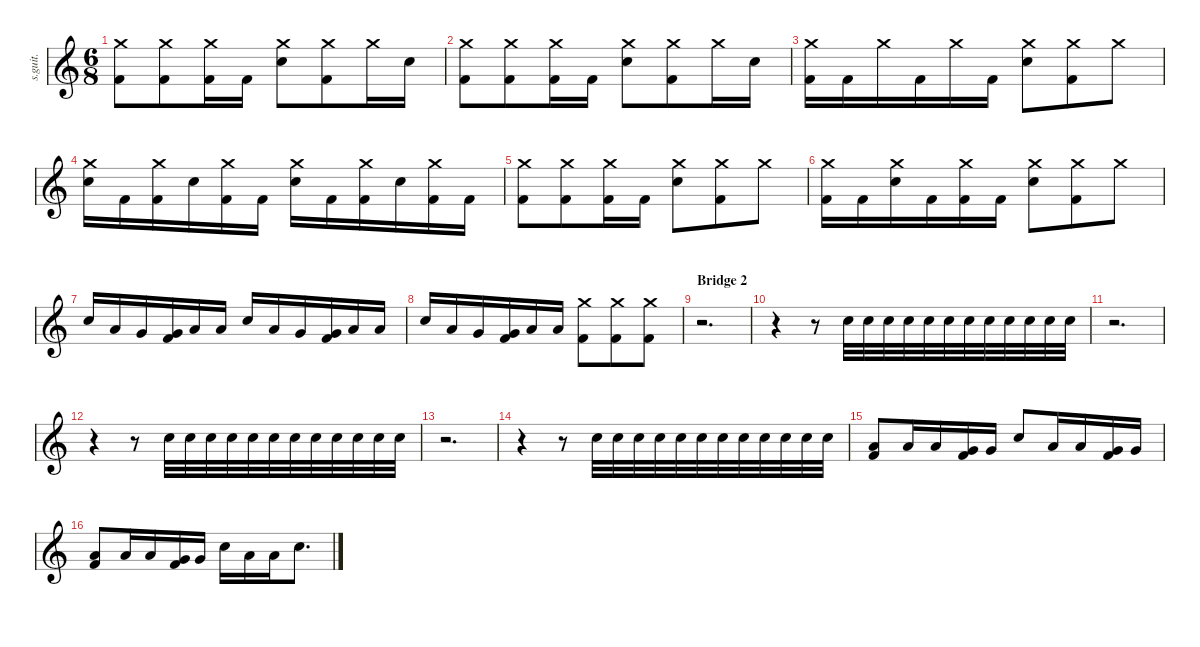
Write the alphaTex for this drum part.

\defaultSystemsLayout 4
\hideDynamics
\bracketExtendMode nobrackets
\track ("Shannon (Drums)" "s.guit.") {instrument percussion}
\staff {score}
\articulation defaults
\ts (6 8)
\tempo (94 hide)
\clef g2
\ks c
("Crash medium (hit)" "Kick (hit) 2").8{lyrics (0 "") lyrics (1 "") lyrics (2 "") lyrics (3 "") lyrics (4 "") dy f} ("Crash medium (hit)" "Kick (hit) 2").8{lyrics (0 "") lyrics (1 "") lyrics (2 "") lyrics (3 "") lyrics (4 "")} ("Crash medium (hit)" "Kick (hit) 2").16{lyrics (0 "") lyrics (1 "") lyrics (2 "") lyrics (3 "") lyrics (4 "")} "Kick (hit) 2".16{lyrics (0 "") lyrics (1 "") lyrics (2 "") lyrics (3 "") lyrics (4 "")} ("Crash medium (hit)" "Electric Snare (hit)").8{lyrics (0 "") lyrics (1 "") lyrics (2 "") lyrics (3 "") lyrics (4 "")} ("Crash medium (hit)" "Kick (hit) 2").8{lyrics (0 "") lyrics (1 "") lyrics (2 "") lyrics (3 "") lyrics (4 "")} "Crash medium (hit)".16{lyrics (0 "") lyrics (1 "") lyrics (2 "") lyrics (3 "") lyrics (4 "")} "Electric Snare (hit)".16{lyrics (0 "") lyrics (1 "") lyrics (2 "") lyrics (3 "") lyrics (4 "")} |
("Crash medium (hit)" "Kick (hit) 2").8{lyrics (0 "") lyrics (1 "") lyrics (2 "") lyrics (3 "") lyrics (4 "")} ("Crash medium (hit)" "Kick (hit) 2").8{lyrics (0 "") lyrics (1 "") lyrics (2 "") lyrics (3 "") lyrics (4 "")} ("Crash medium (hit)" "Kick (hit) 2").16{lyrics (0 "") lyrics (1 "") lyrics (2 "") lyrics (3 "") lyrics (4 "")} "Kick (hit) 2".16{lyrics (0 "") lyrics (1 "") lyrics (2 "") lyrics (3 "") lyrics (4 "")} ("Crash medium (hit)" "Electric Snare (hit)").8{lyrics (0 "") lyrics (1 "") lyrics (2 "") lyrics (3 "") lyrics (4 "")} ("Crash medium (hit)" "Kick (hit) 2").8{lyrics (0 "") lyrics (1 "") lyrics (2 "") lyrics (3 "") lyrics (4 "")} "Crash medium (hit)".16{lyrics (0 "") lyrics (1 "") lyrics (2 "") lyrics (3 "") lyrics (4 "")} "Electric Snare (hit)".16{lyrics (0 "") lyrics (1 "") lyrics (2 "") lyrics (3 "") lyrics (4 "")} |
("Crash medium (hit)" "Kick (hit) 2").16{lyrics (0 "") lyrics (1 "") lyrics (2 "") lyrics (3 "") lyrics (4 "")} "Kick (hit) 2".16{lyrics (0 "") lyrics (1 "") lyrics (2 "") lyrics (3 "") lyrics (4 "")} "Crash medium (hit)".16{lyrics (0 "") lyrics (1 "") lyrics (2 "") lyrics (3 "") lyrics (4 "")} "Kick (hit) 2".16{lyrics (0 "") lyrics (1 "") lyrics (2 "") lyrics (3 "") lyrics (4 "")} "Crash medium (hit)".16{lyrics (0 "") lyrics (1 "") lyrics (2 "") lyrics (3 "") lyrics (4 "")} "Kick (hit) 2".16{lyrics (0 "") lyrics (1 "") lyrics (2 "") lyrics (3 "") lyrics (4 "")} ("Crash medium (hit)" "Electric Snare (hit)").8{lyrics (0 "") lyrics (1 "") lyrics (2 "") lyrics (3 "") lyrics (4 "")} ("Crash medium (hit)" "Kick (hit) 2").8{lyrics (0 "") lyrics (1 "") lyrics (2 "") lyrics (3 "") lyrics (4 "")} "Crash medium (hit)".8{lyrics (0 "") lyrics (1 "") lyrics (2 "") lyrics (3 "") lyrics (4 "")} |
("Crash medium (hit)" "Electric Snare (hit)").16{lyrics (0 "") lyrics (1 "") lyrics (2 "") lyrics (3 "") lyrics (4 "")} "Kick (hit) 2".16{lyrics (0 "") lyrics (1 "") lyrics (2 "") lyrics (3 "") lyrics (4 "")} ("Crash medium (hit)" "Kick (hit) 2").16{lyrics (0 "") lyrics (1 "") lyrics (2 "") lyrics (3 "") lyrics (4 "")} "Electric Snare (hit)".16{lyrics (0 "") lyrics (1 "") lyrics (2 "") lyrics (3 "") lyrics (4 "")} ("Crash medium (hit)" "Kick (hit) 2").16{lyrics (0 "") lyrics (1 "") lyrics (2 "") lyrics (3 "") lyrics (4 "")} "Kick (hit) 2".16{lyrics (0 "") lyrics (1 "") lyrics (2 "") lyrics (3 "") lyrics (4 "")} ("Crash medium (hit)" "Electric Snare (hit)").16{lyrics (0 "") lyrics (1 "") lyrics (2 "") lyrics (3 "") lyrics (4 "")} "Kick (hit) 2".16{lyrics (0 "") lyrics (1 "") lyrics (2 "") lyrics (3 "") lyrics (4 "")} ("Crash medium (hit)" "Kick (hit) 2").16{lyrics (0 "") lyrics (1 "") lyrics (2 "") lyrics (3 "") lyrics (4 "")} "Electric Snare (hit)".16{lyrics (0 "") lyrics (1 "") lyrics (2 "") lyrics (3 "") lyrics (4 "")} ("Crash medium (hit)" "Kick (hit) 2").16{lyrics (0 "") lyrics (1 "") lyrics (2 "") lyrics (3 "") lyrics (4 "")} "Kick (hit) 2".16{lyrics (0 "") lyrics (1 "") lyrics (2 "") lyrics (3 "") lyrics (4 "")} |
("Crash medium (hit)" "Kick (hit) 2").8{lyrics (0 "") lyrics (1 "") lyrics (2 "") lyrics (3 "") lyrics (4 "")} ("Crash medium (hit)" "Kick (hit) 2").8{lyrics (0 "") lyrics (1 "") lyrics (2 "") lyrics (3 "") lyrics (4 "")} ("Crash medium (hit)" "Kick (hit) 2").16{lyrics (0 "") lyrics (1 "") lyrics (2 "") lyrics (3 "") lyrics (4 "")} "Kick (hit) 2".16{lyrics (0 "") lyrics (1 "") lyrics (2 "") lyrics (3 "") lyrics (4 "")} ("Crash medium (hit)" "Electric Snare (hit)").8{lyrics (0 "") lyrics (1 "") lyrics (2 "") lyrics (3 "") lyrics (4 "")} ("Crash medium (hit)" "Kick (hit) 2").8{lyrics (0 "") lyrics (1 "") lyrics (2 "") lyrics (3 "") lyrics (4 "")} "Crash medium (hit)".8{lyrics (0 "") lyrics (1 "") lyrics (2 "") lyrics (3 "") lyrics (4 "")} |
("Crash medium (hit)" "Kick (hit) 2").16{lyrics (0 "") lyrics (1 "") lyrics (2 "") lyrics (3 "") lyrics (4 "")} "Kick (hit) 2".16{lyrics (0 "") lyrics (1 "") lyrics (2 "") lyrics (3 "") lyrics (4 "")} ("Crash medium (hit)" "Electric Snare (hit)").16{lyrics (0 "") lyrics (1 "") lyrics (2 "") lyrics (3 "") lyrics (4 "")} "Kick (hit) 2".16{lyrics (0 "") lyrics (1 "") lyrics (2 "") lyrics (3 "") lyrics (4 "")} ("Crash medium (hit)" "Kick (hit) 2").16{lyrics (0 "") lyrics (1 "") lyrics (2 "") lyrics (3 "") lyrics (4 "")} "Kick (hit) 2".16{lyrics (0 "") lyrics (1 "") lyrics (2 "") lyrics (3 "") lyrics (4 "")} ("Crash medium (hit)" "Electric Snare (hit)").8{lyrics (0 "") lyrics (1 "") lyrics (2 "") lyrics (3 "") lyrics (4 "")} ("Crash medium (hit)" "Kick (hit) 2").8{lyrics (0 "") lyrics (1 "") lyrics (2 "") lyrics (3 "") lyrics (4 "")} "Crash medium (hit)".8{lyrics (0 "") lyrics (1 "") lyrics (2 "") lyrics (3 "") lyrics (4 "")} |
"Electric Snare (hit)".16{lyrics (0 "") lyrics (1 "") lyrics (2 "") lyrics (3 "") lyrics (4 "")} "Low Floor Tom (hit)".16{lyrics (0 "") lyrics (1 "") lyrics (2 "") lyrics (3 "") lyrics (4 "")} "Very Low Tom (hit)".16{lyrics (0 "") lyrics (1 "") lyrics (2 "") lyrics (3 "") lyrics (4 "")} ("Very Low Tom (hit)" "Kick (hit) 2").16{lyrics (0 "") lyrics (1 "") lyrics (2 "") lyrics (3 "") lyrics (4 "")} "Low Floor Tom (hit)".16{lyrics (0 "") lyrics (1 "") lyrics (2 "") lyrics (3 "") lyrics (4 "")} "Low Floor Tom (hit)".16{lyrics (0 "") lyrics (1 "") lyrics (2 "") lyrics (3 "") lyrics (4 "")} "Electric Snare (hit)".16{lyrics (0 "") lyrics (1 "") lyrics (2 "") lyrics (3 "") lyrics (4 "")} "Low Floor Tom (hit)".16{lyrics (0 "") lyrics (1 "") lyrics (2 "") lyrics (3 "") lyrics (4 "")} "Very Low Tom (hit)".16{lyrics (0 "") lyrics (1 "") lyrics (2 "") lyrics (3 "") lyrics (4 "")} ("Very Low Tom (hit)" "Kick (hit) 2").16{lyrics (0 "") lyrics (1 "") lyrics (2 "") lyrics (3 "") lyrics (4 "")} "Low Floor Tom (hit)".16{lyrics (0 "") lyrics (1 "") lyrics (2 "") lyrics (3 "") lyrics (4 "")} "Low Floor Tom (hit)".16{lyrics (0 "") lyrics (1 "") lyrics (2 "") lyrics (3 "") lyrics (4 "")} |
"Electric Snare (hit)".16{lyrics (0 "") lyrics (1 "") lyrics (2 "") lyrics (3 "") lyrics (4 "")} "Low Floor Tom (hit)".16{lyrics (0 "") lyrics (1 "") lyrics (2 "") lyrics (3 "") lyrics (4 "")} "Very Low Tom (hit)".16{lyrics (0 "") lyrics (1 "") lyrics (2 "") lyrics (3 "") lyrics (4 "")} ("Very Low Tom (hit)" "Kick (hit) 2").16{lyrics (0 "") lyrics (1 "") lyrics (2 "") lyrics (3 "") lyrics (4 "")} "Low Floor Tom (hit)".16{lyrics (0 "") lyrics (1 "") lyrics (2 "") lyrics (3 "") lyrics (4 "")} "Low Floor Tom (hit)".16{lyrics (0 "") lyrics (1 "") lyrics (2 "") lyrics (3 "") lyrics (4 "")} ("Crash medium (hit)" "Kick (hit) 2").8{lyrics (0 "") lyrics (1 "") lyrics (2 "") lyrics (3 "") lyrics (4 "")} ("Crash medium (hit)" "Kick (hit) 2").8{lyrics (0 "") lyrics (1 "") lyrics (2 "") lyrics (3 "") lyrics (4 "")} ("Crash medium (hit)" "Kick (hit) 2").8{lyrics (0 "") lyrics (1 "") lyrics (2 "") lyrics (3 "") lyrics (4 "")} |
\section ("" "Bridge 2")
r.2{d} |
r.4 r.8 "Electric Snare (hit)".32{lyrics (0 "") lyrics (1 "") lyrics (2 "") lyrics (3 "") lyrics (4 "")} "Electric Snare (hit)".32{lyrics (0 "") lyrics (1 "") lyrics (2 "") lyrics (3 "") lyrics (4 "")} "Electric Snare (hit)".32{lyrics (0 "") lyrics (1 "") lyrics (2 "") lyrics (3 "") lyrics (4 "")} "Electric Snare (hit)".32{lyrics (0 "") lyrics (1 "") lyrics (2 "") lyrics (3 "") lyrics (4 "")} "Electric Snare (hit)".32{lyrics (0 "") lyrics (1 "") lyrics (2 "") lyrics (3 "") lyrics (4 "")} "Electric Snare (hit)".32{lyrics (0 "") lyrics (1 "") lyrics (2 "") lyrics (3 "") lyrics (4 "")} "Electric Snare (hit)".32{lyrics (0 "") lyrics (1 "") lyrics (2 "") lyrics (3 "") lyrics (4 "")} "Electric Snare (hit)".32{lyrics (0 "") lyrics (1 "") lyrics (2 "") lyrics (3 "") lyrics (4 "")} "Electric Snare (hit)".32{lyrics (0 "") lyrics (1 "") lyrics (2 "") lyrics (3 "") lyrics (4 "")} "Electric Snare (hit)".32{lyrics (0 "") lyrics (1 "") lyrics (2 "") lyrics (3 "") lyrics (4 "")} "Electric Snare (hit)".32{lyrics (0 "") lyrics (1 "") lyrics (2 "") lyrics (3 "") lyrics (4 "")} "Electric Snare (hit)".32{lyrics (0 "") lyrics (1 "") lyrics (2 "") lyrics (3 "") lyrics (4 "")} |
r.2{d} |
r.4 r.8 "Electric Snare (hit)".32{lyrics (0 "") lyrics (1 "") lyrics (2 "") lyrics (3 "") lyrics (4 "")} "Electric Snare (hit)".32{lyrics (0 "") lyrics (1 "") lyrics (2 "") lyrics (3 "") lyrics (4 "")} "Electric Snare (hit)".32{lyrics (0 "") lyrics (1 "") lyrics (2 "") lyrics (3 "") lyrics (4 "")} "Electric Snare (hit)".32{lyrics (0 "") lyrics (1 "") lyrics (2 "") lyrics (3 "") lyrics (4 "")} "Electric Snare (hit)".32{lyrics (0 "") lyrics (1 "") lyrics (2 "") lyrics (3 "") lyrics (4 "")} "Electric Snare (hit)".32{lyrics (0 "") lyrics (1 "") lyrics (2 "") lyrics (3 "") lyrics (4 "")} "Electric Snare (hit)".32{lyrics (0 "") lyrics (1 "") lyrics (2 "") lyrics (3 "") lyrics (4 "")} "Electric Snare (hit)".32{lyrics (0 "") lyrics (1 "") lyrics (2 "") lyrics (3 "") lyrics (4 "")} "Electric Snare (hit)".32{lyrics (0 "") lyrics (1 "") lyrics (2 "") lyrics (3 "") lyrics (4 "")} "Electric Snare (hit)".32{lyrics (0 "") lyrics (1 "") lyrics (2 "") lyrics (3 "") lyrics (4 "")} "Electric Snare (hit)".32{lyrics (0 "") lyrics (1 "") lyrics (2 "") lyrics (3 "") lyrics (4 "")} "Electric Snare (hit)".32{lyrics (0 "") lyrics (1 "") lyrics (2 "") lyrics (3 "") lyrics (4 "")} |
r.2{d} |
r.4 r.8 "Electric Snare (hit)".32{lyrics (0 "") lyrics (1 "") lyrics (2 "") lyrics (3 "") lyrics (4 "")} "Electric Snare (hit)".32{lyrics (0 "") lyrics (1 "") lyrics (2 "") lyrics (3 "") lyrics (4 "")} "Electric Snare (hit)".32{lyrics (0 "") lyrics (1 "") lyrics (2 "") lyrics (3 "") lyrics (4 "")} "Electric Snare (hit)".32{lyrics (0 "") lyrics (1 "") lyrics (2 "") lyrics (3 "") lyrics (4 "")} "Electric Snare (hit)".32{lyrics (0 "") lyrics (1 "") lyrics (2 "") lyrics (3 "") lyrics (4 "")} "Electric Snare (hit)".32{lyrics (0 "") lyrics (1 "") lyrics (2 "") lyrics (3 "") lyrics (4 "")} "Electric Snare (hit)".32{lyrics (0 "") lyrics (1 "") lyrics (2 "") lyrics (3 "") lyrics (4 "")} "Electric Snare (hit)".32{lyrics (0 "") lyrics (1 "") lyrics (2 "") lyrics (3 "") lyrics (4 "")} "Electric Snare (hit)".32{lyrics (0 "") lyrics (1 "") lyrics (2 "") lyrics (3 "") lyrics (4 "")} "Electric Snare (hit)".32{lyrics (0 "") lyrics (1 "") lyrics (2 "") lyrics (3 "") lyrics (4 "")} "Electric Snare (hit)".32{lyrics (0 "") lyrics (1 "") lyrics (2 "") lyrics (3 "") lyrics (4 "")} "Electric Snare (hit)".32{lyrics (0 "") lyrics (1 "") lyrics (2 "") lyrics (3 "") lyrics (4 "")} |
("Low Floor Tom (hit)" "Kick (hit) 2").8{lyrics (0 "") lyrics (1 "") lyrics (2 "") lyrics (3 "") lyrics (4 "")} "Low Tom (hit)".16{lyrics (0 "") lyrics (1 "") lyrics (2 "") lyrics (3 "") lyrics (4 "")} "Low Tom (hit)".16{lyrics (0 "") lyrics (1 "") lyrics (2 "") lyrics (3 "") lyrics (4 "")} ("Very Low Tom (hit)" "Kick (hit) 2").16{lyrics (0 "") lyrics (1 "") lyrics (2 "") lyrics (3 "") lyrics (4 "")} "Very Low Tom (hit)".16{lyrics (0 "") lyrics (1 "") lyrics (2 "") lyrics (3 "") lyrics (4 "")} "Electric Snare (hit)".8{lyrics (0 "") lyrics (1 "") lyrics (2 "") lyrics (3 "") lyrics (4 "")} "Low Tom (hit)".16{lyrics (0 "") lyrics (1 "") lyrics (2 "") lyrics (3 "") lyrics (4 "")} "Low Tom (hit)".16{lyrics (0 "") lyrics (1 "") lyrics (2 "") lyrics (3 "") lyrics (4 "")} ("Very Low Tom (hit)" "Kick (hit) 2").16{lyrics (0 "") lyrics (1 "") lyrics (2 "") lyrics (3 "") lyrics (4 "")} "Very Low Tom (hit)".16{lyrics (0 "") lyrics (1 "") lyrics (2 "") lyrics (3 "") lyrics (4 "")} |
("Low Floor Tom (hit)" "Kick (hit) 2").8{lyrics (0 "") lyrics (1 "") lyrics (2 "") lyrics (3 "") lyrics (4 "")} "Low Tom (hit)".16{lyrics (0 "") lyrics (1 "") lyrics (2 "") lyrics (3 "") lyrics (4 "")} "Low Tom (hit)".16{lyrics (0 "") lyrics (1 "") lyrics (2 "") lyrics (3 "") lyrics (4 "")} ("Very Low Tom (hit)" "Kick (hit) 2").16{lyrics (0 "") lyrics (1 "") lyrics (2 "") lyrics (3 "") lyrics (4 "")} "Very Low Tom (hit)".16{lyrics (0 "") lyrics (1 "") lyrics (2 "") lyrics (3 "") lyrics (4 "")} "Electric Snare (hit)".16{lyrics (0 "") lyrics (1 "") lyrics (2 "") lyrics (3 "") lyrics (4 "")} "Low Tom (hit)".16{lyrics (0 "") lyrics (1 "") lyrics (2 "") lyrics (3 "") lyrics (4 "")} "Low Tom (hit)".16{lyrics (0 "") lyrics (1 "") lyrics (2 "") lyrics (3 "") lyrics (4 "")} "Electric Snare (hit)".8{d lyrics (0 "") lyrics (1 "") lyrics (2 "") lyrics (3 "") lyrics (4 "")}
